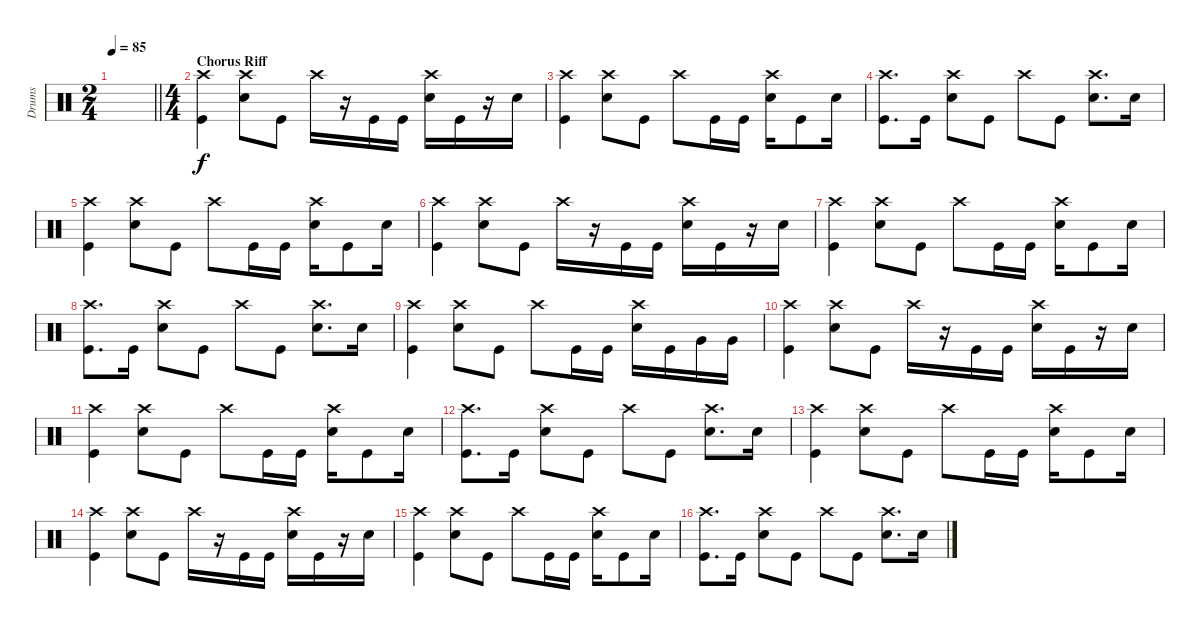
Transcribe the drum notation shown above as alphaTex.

\track ("Drums" "Drums") {instrument percussion}
\staff {score}
\articulation defaults
\ts (2 4)
\tempo 85
\clef neutral
\barLineRight lightlight
\ks c
|
\ts (4 4)
\section ("" "Chorus Riff")
("Crash high (hit)" "Kick (hit)").4 ("Snare (hit) 2" "Crash high (hit)").8 "Kick (hit)".8 "Crash high (hit)".16 r.16 "Kick (hit)".16 "Kick (hit)".16 ("Crash high (hit)" "Snare (hit) 2").16 "Kick (hit)".16 r.16 "Snare (hit) 2".16 |
("Crash high (hit)" "Kick (hit)").4 ("Snare (hit) 2" "Crash high (hit)").8 "Kick (hit)".8 "Crash high (hit)".8 "Kick (hit)".16 "Kick (hit)".16 ("Crash high (hit)" "Snare (hit) 2").16 "Kick (hit)".8 "Snare (hit) 2".16 |
("Crash high (hit)" "Kick (hit)").8{d} "Kick (hit)".16 ("Snare (hit) 2" "Crash high (hit)").8 "Kick (hit)".8 "Crash high (hit)".8 "Kick (hit)".8 ("Snare (hit) 2" "Crash high (hit)").8{d} "Snare (hit) 2".16 |
("Crash high (hit)" "Kick (hit)").4 ("Snare (hit) 2" "Crash high (hit)").8 "Kick (hit)".8 "Crash high (hit)".8 "Kick (hit)".16 "Kick (hit)".16 ("Crash high (hit)" "Snare (hit) 2").16 "Kick (hit)".8 "Snare (hit) 2".16 |
("Crash high (hit)" "Kick (hit)").4 ("Snare (hit) 2" "Crash high (hit)").8 "Kick (hit)".8 "Crash high (hit)".16 r.16 "Kick (hit)".16 "Kick (hit)".16 ("Crash high (hit)" "Snare (hit) 2").16 "Kick (hit)".16 r.16 "Snare (hit) 2".16 |
("Crash high (hit)" "Kick (hit)").4 ("Snare (hit) 2" "Crash high (hit)").8 "Kick (hit)".8 "Crash high (hit)".8 "Kick (hit)".16 "Kick (hit)".16 ("Crash high (hit)" "Snare (hit) 2").16 "Kick (hit)".8 "Snare (hit) 2".16 |
("Crash high (hit)" "Kick (hit)").8{d} "Kick (hit)".16 ("Snare (hit) 2" "Crash high (hit)").8 "Kick (hit)".8 "Crash high (hit)".8 "Kick (hit)".8 ("Snare (hit) 2" "Crash high (hit)").8{d} "Snare (hit) 2".16 |
("Crash high (hit)" "Kick (hit)").4 ("Snare (hit) 2" "Crash high (hit)").8 "Kick (hit)".8 "Crash high (hit)".8 "Kick (hit)".16 "Kick (hit)".16 ("Crash high (hit)" "Snare (hit) 2").16 "Kick (hit)".16 "Very Low Tom (hit)".16 "Very Low Tom (hit)".16 |
("Crash high (hit)" "Kick (hit)").4 ("Snare (hit) 2" "Crash high (hit)").8 "Kick (hit)".8 "Crash high (hit)".16 r.16 "Kick (hit)".16 "Kick (hit)".16 ("Crash high (hit)" "Snare (hit) 2").16 "Kick (hit)".16 r.16 "Snare (hit) 2".16 |
("Crash high (hit)" "Kick (hit)").4 ("Snare (hit) 2" "Crash high (hit)").8 "Kick (hit)".8 "Crash high (hit)".8 "Kick (hit)".16 "Kick (hit)".16 ("Crash high (hit)" "Snare (hit) 2").16 "Kick (hit)".8 "Snare (hit) 2".16 |
("Crash high (hit)" "Kick (hit)").8{d} "Kick (hit)".16 ("Snare (hit) 2" "Crash high (hit)").8 "Kick (hit)".8 "Crash high (hit)".8 "Kick (hit)".8 ("Snare (hit) 2" "Crash high (hit)").8{d} "Snare (hit) 2".16 |
("Crash high (hit)" "Kick (hit)").4 ("Snare (hit) 2" "Crash high (hit)").8 "Kick (hit)".8 "Crash high (hit)".8 "Kick (hit)".16 "Kick (hit)".16 ("Crash high (hit)" "Snare (hit) 2").16 "Kick (hit)".8 "Snare (hit) 2".16 |
("Crash high (hit)" "Kick (hit)").4 ("Snare (hit) 2" "Crash high (hit)").8 "Kick (hit)".8 "Crash high (hit)".16 r.16 "Kick (hit)".16 "Kick (hit)".16 ("Crash high (hit)" "Snare (hit) 2").16 "Kick (hit)".16 r.16 "Snare (hit) 2".16 |
("Crash high (hit)" "Kick (hit)").4 ("Snare (hit) 2" "Crash high (hit)").8 "Kick (hit)".8 "Crash high (hit)".8 "Kick (hit)".16 "Kick (hit)".16 ("Crash high (hit)" "Snare (hit) 2").16 "Kick (hit)".8 "Snare (hit) 2".16 |
("Crash high (hit)" "Kick (hit)").8{d} "Kick (hit)".16 ("Snare (hit) 2" "Crash high (hit)").8 "Kick (hit)".8 "Crash high (hit)".8 "Kick (hit)".8 ("Snare (hit) 2" "Crash high (hit)").8{d} "Snare (hit) 2".16
